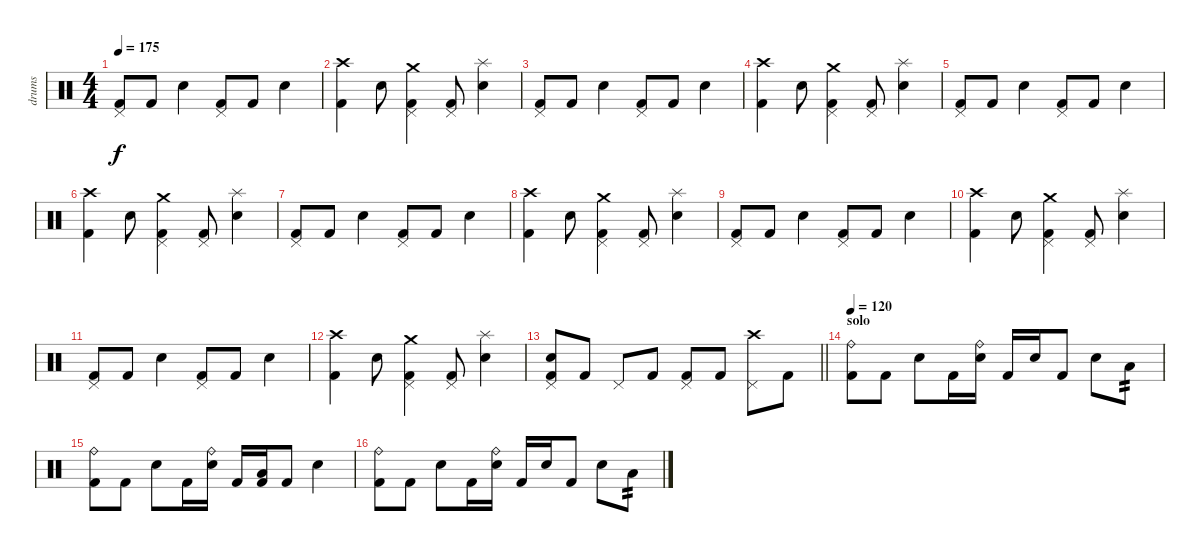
\track ("drums" "drums") {instrument percussion}
\staff {score}
\articulation defaults
\ts (4 4)
\tempo 175
\clef neutral
\ks c
("Pedal Hi-Hat (hit)" "Kick (hit) 2").8{dy f} "Kick (hit) 2".8 "Electric Snare (hit)".4 ("Pedal Hi-Hat (hit)" "Kick (hit) 2").8 "Kick (hit) 2".8 "Electric Snare (hit)".4 |
("Crash high (hit)" "Kick (hit) 2").4 "Electric Snare (hit)".8 ("Crash medium (hit)" "Pedal Hi-Hat (hit)" "Kick (hit) 2").4 ("Pedal Hi-Hat (hit)" "Kick (hit) 2").8 ("Splash (hit)" "Electric Snare (hit)").4 |
("Pedal Hi-Hat (hit)" "Kick (hit) 2").8 "Kick (hit) 2".8 "Electric Snare (hit)".4 ("Pedal Hi-Hat (hit)" "Kick (hit) 2").8 "Kick (hit) 2".8 "Electric Snare (hit)".4 |
("Crash high (hit)" "Kick (hit) 2").4 "Electric Snare (hit)".8 ("Crash medium (hit)" "Pedal Hi-Hat (hit)" "Kick (hit) 2").4 ("Pedal Hi-Hat (hit)" "Kick (hit) 2").8 ("Splash (hit)" "Electric Snare (hit)").4 |
("Pedal Hi-Hat (hit)" "Kick (hit) 2").8 "Kick (hit) 2".8 "Electric Snare (hit)".4 ("Pedal Hi-Hat (hit)" "Kick (hit) 2").8 "Kick (hit) 2".8 "Electric Snare (hit)".4 |
("Crash high (hit)" "Kick (hit) 2").4 "Electric Snare (hit)".8 ("Crash medium (hit)" "Pedal Hi-Hat (hit)" "Kick (hit) 2").4 ("Pedal Hi-Hat (hit)" "Kick (hit) 2").8 ("Splash (hit)" "Electric Snare (hit)").4 |
("Pedal Hi-Hat (hit)" "Kick (hit) 2").8 "Kick (hit) 2".8 "Electric Snare (hit)".4 ("Pedal Hi-Hat (hit)" "Kick (hit) 2").8 "Kick (hit) 2".8 "Electric Snare (hit)".4 |
("Crash high (hit)" "Kick (hit) 2").4 "Electric Snare (hit)".8 ("Crash medium (hit)" "Pedal Hi-Hat (hit)" "Kick (hit) 2").4 ("Pedal Hi-Hat (hit)" "Kick (hit) 2").8 ("Splash (hit)" "Electric Snare (hit)").4 |
("Pedal Hi-Hat (hit)" "Kick (hit) 2").8 "Kick (hit) 2".8 "Electric Snare (hit)".4 ("Pedal Hi-Hat (hit)" "Kick (hit) 2").8 "Kick (hit) 2".8 "Electric Snare (hit)".4 |
("Crash high (hit)" "Kick (hit) 2").4 "Electric Snare (hit)".8 ("Crash medium (hit)" "Pedal Hi-Hat (hit)" "Kick (hit) 2").4 ("Pedal Hi-Hat (hit)" "Kick (hit) 2").8 ("Splash (hit)" "Electric Snare (hit)").4 |
("Pedal Hi-Hat (hit)" "Kick (hit) 2").8 "Kick (hit) 2".8 "Electric Snare (hit)".4 ("Pedal Hi-Hat (hit)" "Kick (hit) 2").8 "Kick (hit) 2".8 "Electric Snare (hit)".4 |
("Crash high (hit)" "Kick (hit) 2").4 "Electric Snare (hit)".8 ("Crash medium (hit)" "Pedal Hi-Hat (hit)" "Kick (hit) 2").4 ("Pedal Hi-Hat (hit)" "Kick (hit) 2").8 ("Splash (hit)" "Electric Snare (hit)").4 |
\barLineRight lightlight
("Electric Snare (hit)" "Pedal Hi-Hat (hit)" "Kick (hit) 2").8 "Kick (hit) 2".8 "Pedal Hi-Hat (hit)".8 "Kick (hit) 2".8 ("Pedal Hi-Hat (hit)" "Kick (hit) 2").8 "Kick (hit) 2".8 ("Crash high (hit)" "Pedal Hi-Hat (hit)").8 "Kick (hit) 2".8 |
\section ("" "solo")
\tempo 120
("Ride (bell)" "Kick (hit) 2").8 "Kick (hit) 2".8 "Electric Snare (hit)".8 "Kick (hit) 2".16 ("Ride (bell)" "Electric Snare (hit)").16 "Kick (hit) 2".16 "Electric Snare (hit)".16 "Kick (hit) 2".8 "Electric Snare (hit)".8 "Low Tom (hit)".8{tp 2} |
("Ride (bell)" "Kick (hit) 2").8 "Kick (hit) 2".8 "Electric Snare (hit)".8 "Kick (hit) 2".16 ("Ride (bell)" "Electric Snare (hit)").16 "Kick (hit) 2".16 ("Low Tom (hit)" "Kick (hit) 2").16 "Kick (hit) 2".8 "Electric Snare (hit)".4 |
("Ride (bell)" "Kick (hit) 2").8 "Kick (hit) 2".8 "Electric Snare (hit)".8 "Kick (hit) 2".16 ("Ride (bell)" "Electric Snare (hit)").16 "Kick (hit) 2".16 "Electric Snare (hit)".16 "Kick (hit) 2".8 "Electric Snare (hit)".8 "Low Tom (hit)".8{tp 2}
